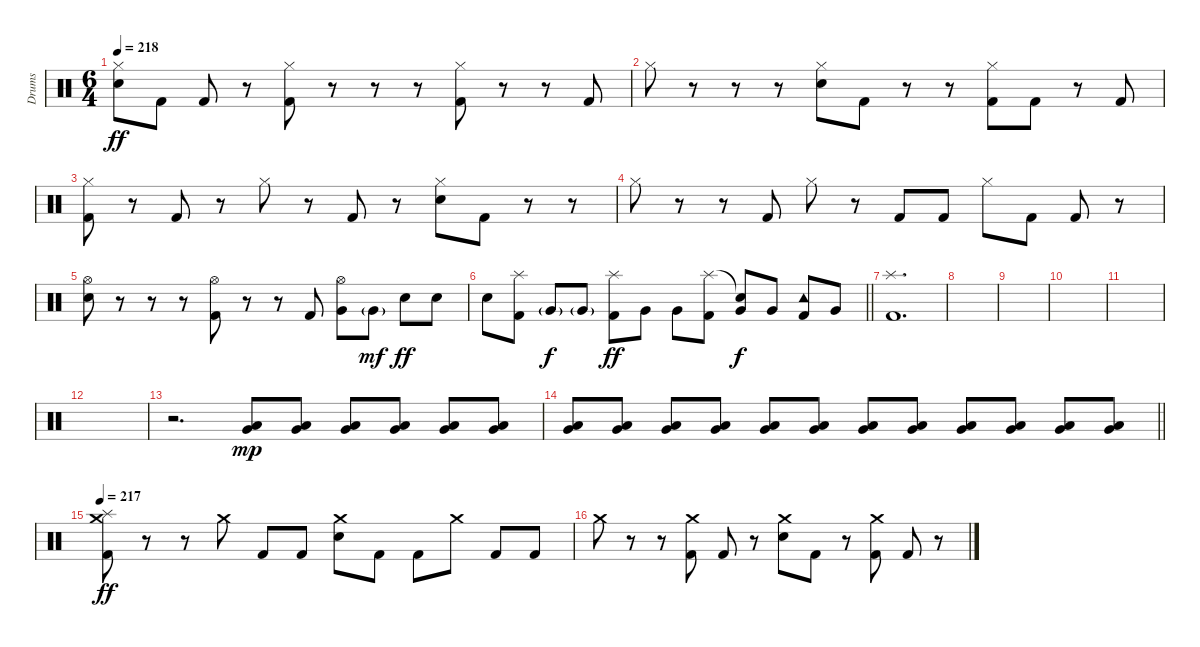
\track ("Drums" "Drums") {instrument percussion}
\staff {score}
\articulation defaults
\ts (6 4)
\tempo 218
\clef neutral
\ks c
("Hi-Hat (closed)" "Electric Snare (hit)").8{dy ff} "Kick (hit) 2".8 "Kick (hit) 2".8 r.8 ("Hi-Hat (closed)" "Kick (hit) 2").8 r.8 r.8 r.8 ("Hi-Hat (closed)" "Kick (hit) 2").8 r.8 r.8 "Kick (hit) 2".8 |
"Hi-Hat (closed)".8 r.8 r.8 r.8 ("Hi-Hat (closed)" "Electric Snare (hit)").8 "Kick (hit) 2".8 r.8 r.8 ("Hi-Hat (closed)" "Kick (hit) 2").8 "Kick (hit) 2".8 r.8 "Kick (hit) 2".8 |
("Hi-Hat (closed)" "Kick (hit) 2").8 r.8 "Kick (hit) 2".8 r.8 "Hi-Hat (closed)".8 r.8 "Kick (hit) 2".8 r.8 ("Hi-Hat (closed)" "Electric Snare (hit)").8 "Kick (hit) 2".8 r.8 r.8 |
"Hi-Hat (closed)".8 r.8 r.8 "Kick (hit) 2".8 "Hi-Hat (closed)".8 r.8 "Kick (hit) 2".8 "Kick (hit) 2".8 "Hi-Hat (closed)".8 "Kick (hit) 2".8 "Kick (hit) 2".8 r.8 |
("Hi-Hat (open)" "Electric Snare (hit)").8 r.8 r.8 r.8 ("Hi-Hat (open)" "Kick (hit) 2").8 r.8 r.8 "Kick (hit) 2".8 ("Hi-Hat (open)" "Very Low Tom (hit)").8 "Very Low Tom (hit)"{g}.8{dy mf} "Electric Snare (hit)".8{dy ff} "Electric Snare (hit)".8 |
\barLineRight lightlight "Electric Snare (hit)".8
("Splash (hit)" "Kick (hit) 2").8 "Very Low Tom (hit)"{g}.8{dy f} "Very Low Tom (hit)"{g}.8 ("Splash (hit)" "Kick (hit) 2").8{dy ff} "Very Low Tom (hit)".8 "Very Low Tom (hit)".8 ("Splash (hit)" "Kick (hit) 2").8 ("Snare (hit)"{t} "Very Low Tom (hit)").8{dy f} "Very Low Tom (hit)".8 ("Tambourine (hit)" "Kick (hit) 2").8 "Very Low Tom (hit)".8 |
\section ("" "")
("Splash (hit)" "Kick (hit) 2").1{d} |
|
|
|
|
|
r.2{d} ("Very Low Tom (hit)" "Low Floor Tom (hit)").8{dy mp volume 0} ("Very Low Tom (hit)" "Low Floor Tom (hit)").8 ("Very Low Tom (hit)" "Low Floor Tom (hit)").8{volume 11} ("Very Low Tom (hit)" "Low Floor Tom (hit)").8 ("Very Low Tom (hit)" "Low Floor Tom (hit)").8 ("Very Low Tom (hit)" "Low Floor Tom (hit)").8 |
\barLineRight lightlight
("Very Low Tom (hit)" "Low Floor Tom (hit)").8 ("Very Low Tom (hit)" "Low Floor Tom (hit)").8 ("Very Low Tom (hit)" "Low Floor Tom (hit)").8 ("Very Low Tom (hit)" "Low Floor Tom (hit)").8 ("Very Low Tom (hit)" "Low Floor Tom (hit)").8{volume 16} ("Very Low Tom (hit)" "Low Floor Tom (hit)").8 ("Very Low Tom (hit)" "Low Floor Tom (hit)").8 ("Very Low Tom (hit)" "Low Floor Tom (hit)").8 ("Very Low Tom (hit)" "Low Floor Tom (hit)").8 ("Very Low Tom (hit)" "Low Floor Tom (hit)").8 ("Very Low Tom (hit)" "Low Floor Tom (hit)").8 ("Very Low Tom (hit)" "Low Floor Tom (hit)").8 |
\section ("" "")
\tempo 217
("Crash medium (hit)" "Splash (hit)" "Kick (hit) 2").8{dy ff} r.8 r.8 "Crash medium (hit)".8 "Kick (hit) 2".8 "Kick (hit) 2".8 ("Crash medium (hit)" "Electric Snare (hit)").8 "Kick (hit) 2".8 "Kick (hit) 2".8 "Crash medium (hit)".8 "Kick (hit) 2".8 "Kick (hit) 2".8 |
"Crash medium (hit)".8 r.8 r.8 ("Crash medium (hit)" "Kick (hit) 2").8 "Kick (hit) 2".8 r.8 ("Crash medium (hit)" "Electric Snare (hit)").8 "Kick (hit) 2".8 r.8 ("Crash medium (hit)" "Kick (hit) 2").8 "Kick (hit) 2".8 r.8
